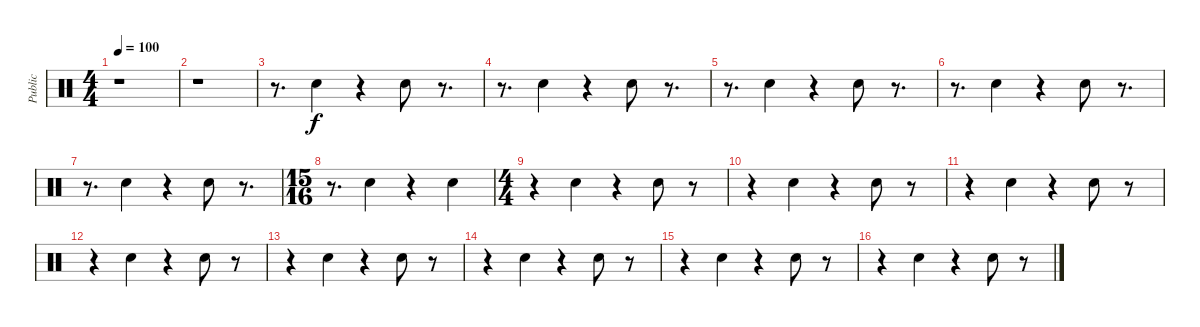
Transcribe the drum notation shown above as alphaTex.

\track ("Public" "Public") {instrument percussion}
\staff {score}
\articulation defaults
\ts (4 4)
\tempo 100
\clef neutral
\ks c
r.1{dy f volume 0} |
r.1{volume 0} |
r.8{d volume 4} "Hand Clap (hit)".4 r.4 "Hand Clap (hit)".8 r.8{d} |
r.8{d volume 6} "Hand Clap (hit)".4 r.4 "Hand Clap (hit)".8 r.8{d} |
r.8{d volume 8} "Hand Clap (hit)".4 r.4 "Hand Clap (hit)".8 r.8{d} |
r.8{d volume 10} "Hand Clap (hit)".4 r.4 "Hand Clap (hit)".8 r.8{d} |
r.8{d volume 13} "Hand Clap (hit)".4 r.4 "Hand Clap (hit)".8 r.8{d} |
\ts (15 16)
r.8{d volume 13} "Hand Clap (hit)".4 r.4 "Hand Clap (hit)".4 |
\ts (4 4)
r.4{volume 13} "Hand Clap (hit)".4 r.4 "Hand Clap (hit)".8 r.8 |
r.4{volume 13} "Hand Clap (hit)".4 r.4 "Hand Clap (hit)".8 r.8 |
r.4{volume 13} "Hand Clap (hit)".4 r.4 "Hand Clap (hit)".8 r.8 |
r.4{volume 13} "Hand Clap (hit)".4 r.4 "Hand Clap (hit)".8 r.8 |
r.4{volume 13} "Hand Clap (hit)".4 r.4 "Hand Clap (hit)".8 r.8 |
r.4{volume 13} "Hand Clap (hit)".4 r.4 "Hand Clap (hit)".8 r.8 |
r.4{volume 13} "Hand Clap (hit)".4 r.4 "Hand Clap (hit)".8 r.8 |
r.4{volume 13} "Hand Clap (hit)".4 r.4 "Hand Clap (hit)".8 r.8
